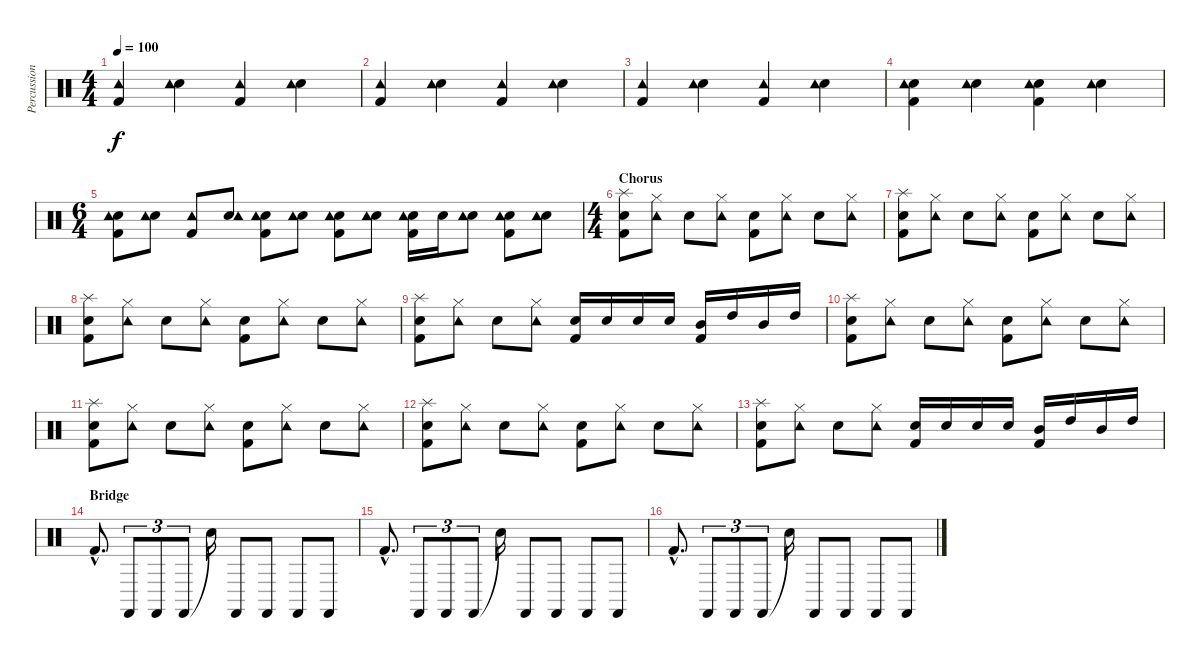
\track ("Percussion" "Percussion") {instrument percussion}
\staff {score}
\articulation defaults
\ts (4 4)
\tempo 100
\clef neutral
\ks c
("Tambourine (hit)" "Kick (hit) 2").4{dy f} ("Electric Snare (hit)" "Tambourine (hit)").4 ("Tambourine (hit)" "Kick (hit) 2").4 ("Electric Snare (hit)" "Tambourine (hit)").4 |
("Tambourine (hit)" "Kick (hit) 2").4 ("Electric Snare (hit)" "Tambourine (hit)").4 ("Tambourine (hit)" "Kick (hit) 2").4 ("Electric Snare (hit)" "Tambourine (hit)").4 |
("Tambourine (hit)" "Kick (hit) 2").4 ("Electric Snare (hit)" "Tambourine (hit)").4 ("Tambourine (hit)" "Kick (hit) 2").4 ("Electric Snare (hit)" "Tambourine (hit)").4 |
("Electric Snare (hit)" "Tambourine (hit)" "Kick (hit) 2").4 ("Electric Snare (hit)" "Tambourine (hit)").4 ("Electric Snare (hit)" "Tambourine (hit)" "Kick (hit) 2").4 ("Electric Snare (hit)" "Tambourine (hit)").4 |
\ts (6 4)
("Electric Snare (hit)" "Tambourine (hit)" "Kick (hit) 2").8 ("Electric Snare (hit)" "Tambourine (hit)").8 ("Tambourine (hit)" "Kick (hit) 2").8 ("Electric Snare (hit)" "Tambourine (hit)").8 ("Electric Snare (hit)" "Tambourine (hit)" "Kick (hit) 2").8 ("Electric Snare (hit)" "Tambourine (hit)").8 ("Electric Snare (hit)" "Tambourine (hit)" "Kick (hit) 2").8 ("Electric Snare (hit)" "Tambourine (hit)").8 ("Electric Snare (hit)" "Tambourine (hit)" "Kick (hit) 2").16 "Electric Snare (hit)".16 ("Electric Snare (hit)" "Tambourine (hit)").8 ("Electric Snare (hit)" "Tambourine (hit)" "Kick (hit) 2").8 ("Electric Snare (hit)" "Tambourine (hit)").8 |
\ts (4 4)
\section ("" "Chorus")
("Splash (hit)" "Electric Snare (hit)" "Kick (hit) 2").8 ("Hi-Hat (closed)" "Tambourine (hit)").8 "Electric Snare (hit)".8 ("Hi-Hat (closed)" "Tambourine (hit)").8 ("Electric Snare (hit)" "Kick (hit) 2").8 ("Hi-Hat (closed)" "Tambourine (hit)").8 "Electric Snare (hit)".8 ("Hi-Hat (closed)" "Tambourine (hit)").8 |
("Splash (hit)" "Electric Snare (hit)" "Kick (hit) 2").8 ("Hi-Hat (closed)" "Tambourine (hit)").8 "Electric Snare (hit)".8 ("Hi-Hat (closed)" "Tambourine (hit)").8 ("Electric Snare (hit)" "Kick (hit) 2").8 ("Hi-Hat (closed)" "Tambourine (hit)").8 "Electric Snare (hit)".8 ("Hi-Hat (closed)" "Tambourine (hit)").8 |
("Splash (hit)" "Electric Snare (hit)" "Kick (hit) 2").8 ("Hi-Hat (closed)" "Tambourine (hit)").8 "Electric Snare (hit)".8 ("Hi-Hat (closed)" "Tambourine (hit)").8 ("Electric Snare (hit)" "Kick (hit) 2").8 ("Hi-Hat (closed)" "Tambourine (hit)").8 "Electric Snare (hit)".8 ("Hi-Hat (closed)" "Tambourine (hit)").8 |
("Splash (hit)" "Electric Snare (hit)" "Kick (hit) 2").8 ("Hi-Hat (closed)" "Tambourine (hit)").8 "Electric Snare (hit)".8 ("Hi-Hat (closed)" "Tambourine (hit)").8 ("Electric Snare (hit)" "Kick (hit) 2").16 "Electric Snare (hit)".16 "Electric Snare (hit)".16 "Electric Snare (hit)".16 ("Mid Tom (hit)" "Kick (hit) 2").16 "High Tom (hit)".16 "Mid Tom (hit)".16 "High Tom (hit)".16 |
("Splash (hit)" "Electric Snare (hit)" "Kick (hit) 2").8 ("Hi-Hat (closed)" "Tambourine (hit)").8 "Electric Snare (hit)".8 ("Hi-Hat (closed)" "Tambourine (hit)").8 ("Electric Snare (hit)" "Kick (hit) 2").8 ("Hi-Hat (closed)" "Tambourine (hit)").8 "Electric Snare (hit)".8 ("Hi-Hat (closed)" "Tambourine (hit)").8 |
("Splash (hit)" "Electric Snare (hit)" "Kick (hit) 2").8 ("Hi-Hat (closed)" "Tambourine (hit)").8 "Electric Snare (hit)".8 ("Hi-Hat (closed)" "Tambourine (hit)").8 ("Electric Snare (hit)" "Kick (hit) 2").8 ("Hi-Hat (closed)" "Tambourine (hit)").8 "Electric Snare (hit)".8 ("Hi-Hat (closed)" "Tambourine (hit)").8 |
("Splash (hit)" "Electric Snare (hit)" "Kick (hit) 2").8 ("Hi-Hat (closed)" "Tambourine (hit)").8 "Electric Snare (hit)".8 ("Hi-Hat (closed)" "Tambourine (hit)").8 ("Electric Snare (hit)" "Kick (hit) 2").8 ("Hi-Hat (closed)" "Tambourine (hit)").8 "Electric Snare (hit)".8 ("Hi-Hat (closed)" "Tambourine (hit)").8 |
("Splash (hit)" "Electric Snare (hit)" "Kick (hit) 2").8 ("Hi-Hat (closed)" "Tambourine (hit)").8 "Electric Snare (hit)".8 ("Hi-Hat (closed)" "Tambourine (hit)").8 ("Electric Snare (hit)" "Kick (hit) 2").16 "Electric Snare (hit)".16 "Electric Snare (hit)".16 "Electric Snare (hit)".16 ("Mid Tom (hit)" "Kick (hit) 2").16 "High Tom (hit)".16 "Mid Tom (hit)".16 "High Tom (hit)".16 |
\section ("" "Bridge")
"Kick (hit) 2"{hac}.8{d} "Castanets (hit)".8{tu (3 2)} "Castanets (hit)".8{tu (3 2)} "Castanets (hit)".8{tu (3 2)} "Snare (hit)"{t}.16 "Castanets (hit)".8 "Castanets (hit)".8 "Castanets (hit)".8 "Castanets (hit)".8 |
"Kick (hit) 2"{hac}.8{d} "Castanets (hit)".8{tu (3 2)} "Castanets (hit)".8{tu (3 2)} "Castanets (hit)".8{tu (3 2)} "Snare (hit)"{t}.16 "Castanets (hit)".8 "Castanets (hit)".8 "Castanets (hit)".8 "Castanets (hit)".8 |
"Kick (hit) 2"{hac}.8{d} "Castanets (hit)".8{tu (3 2)} "Castanets (hit)".8{tu (3 2)} "Castanets (hit)".8{tu (3 2)} "Snare (hit)"{t}.16 "Castanets (hit)".8 "Castanets (hit)".8 "Castanets (hit)".8 "Castanets (hit)".8
